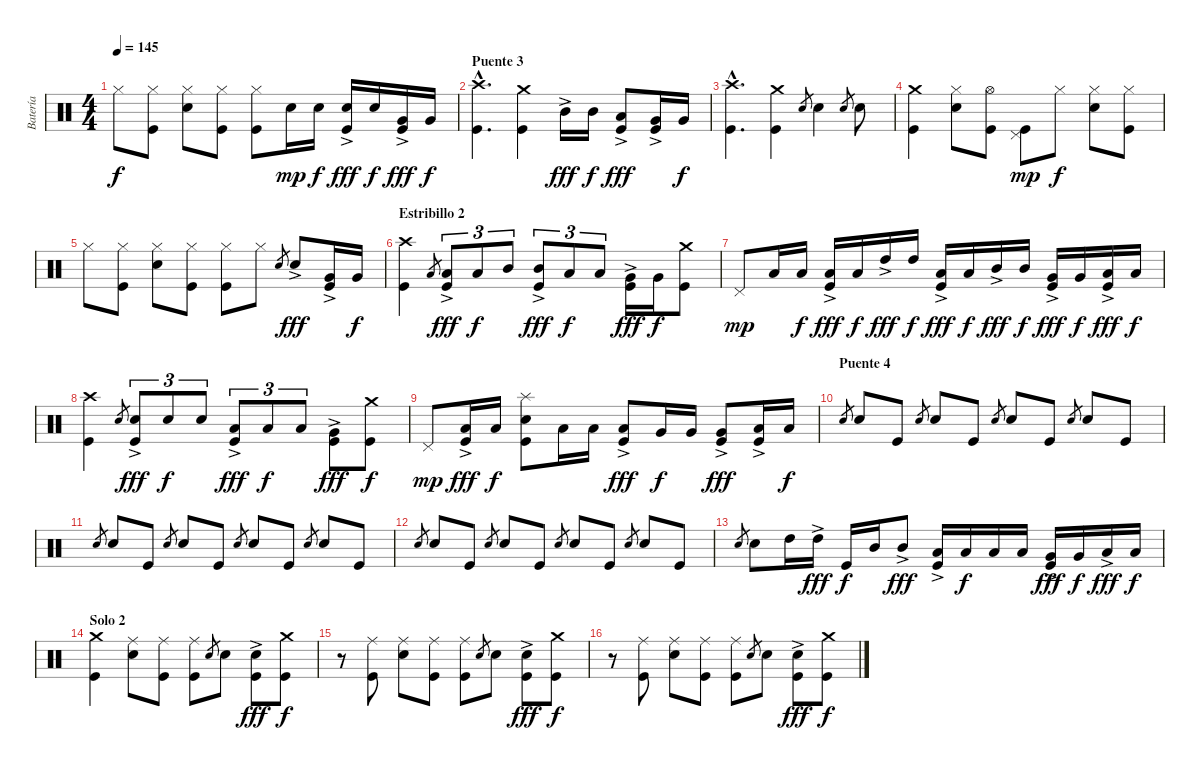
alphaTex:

\track ("Batería" "Batería") {instrument percussion}
\staff {score}
\articulation defaults
\ts (4 4)
\tempo 145
\clef neutral
\ks c "Hi-Hat (closed)".8{dy f}
("Kick (hit)" "Hi-Hat (closed)").8 ("Electric Snare (hit)" "Hi-Hat (closed)").8 ("Kick (hit)" "Hi-Hat (closed)").8 ("Kick (hit)" "Hi-Hat (closed)").8 "Electric Snare (hit)".16{dy mp} "Electric Snare (hit)".16{dy f} ("Kick (hit)" "Electric Snare (hit)"{ac}).16{dy fff} "Electric Snare (hit)".16{dy f} ("Kick (hit)" "Very Low Tom (hit)"{ac}).16{dy fff} "Very Low Tom (hit)".16{dy f} |
\section ("" "Puente 3")
("Kick (hit)"{hac} "Crash high (hit)"{hac}).4{d} ("Kick (hit)" "Crash medium (hit)").4 "Mid Tom (hit)"{ac}.16{dy fff} "Mid Tom (hit)".16{dy f} ("Kick (hit)" "Low Tom (hit)"{ac}).8{dy fff} ("Kick (hit)" "Very Low Tom (hit)"{ac}).16 "Very Low Tom (hit)".16{dy f} |
("Kick (hit)"{hac} "Crash high (hit)"{hac}).4{d} ("Kick (hit)" "Crash medium (hit)").4 "Electric Snare (hit)".8{gr} "Electric Snare (hit)".4 "Electric Snare (hit)".8{gr} "Electric Snare (hit)".8 |
("Kick (hit)" "Crash medium (hit)").4 ("Electric Snare (hit)" "Hi-Hat (closed)").8 ("Kick (hit)" "Hi-Hat (open)").8 ("Kick (hit)" "Pedal Hi-Hat (hit)").8{dy mp} "Hi-Hat (closed)".8{dy f} ("Electric Snare (hit)" "Hi-Hat (closed)").8 ("Kick (hit)" "Hi-Hat (closed)").8 |
"Hi-Hat (closed)".8 ("Kick (hit)" "Hi-Hat (closed)").8 ("Electric Snare (hit)" "Hi-Hat (closed)").8 ("Kick (hit)" "Hi-Hat (closed)").8 ("Kick (hit)" "Hi-Hat (closed)").8 "Hi-Hat (closed)".8 "Electric Snare (hit)".8{gr} "Electric Snare (hit)"{ac}.8{dy fff} ("Kick (hit)" "Very Low Tom (hit)"{ac}).16 "Very Low Tom (hit)".16{dy f} |
\section ("" "Estribillo 2")
("Kick (hit)" "Crash high (hit)").4 "Low Tom (hit)".8{gr} ("Kick (hit)" "Low Tom (hit)"{ac}).8{tu (3 2) dy fff} "Low Tom (hit)".8{tu (3 2) dy f} "Mid Tom (hit)".8{tu (3 2)} ("Kick (hit)" "Mid Tom (hit)"{ac}).8{tu (3 2) dy fff} "Low Tom (hit)".8{tu (3 2) dy f} "Low Tom (hit)".8{tu (3 2)} ("Kick (hit)" "Very Low Tom (hit)"{ac}).16{dy fff} "Very Low Tom (hit)".16{dy f} ("Kick (hit)" "Crash medium (hit)").8 |
"Pedal Hi-Hat (hit)".8{dy mp} "Low Tom (hit)".16 "Low Tom (hit)".16{dy f} ("Kick (hit)" "Low Tom (hit)"{ac}).16{dy fff} "Low Tom (hit)".16{dy f} "High Tom (hit)"{ac}.16{dy fff} "High Tom (hit)".16{dy f} ("Kick (hit)" "Low Tom (hit)"{ac}).16{dy fff} "Low Tom (hit)".16{dy f} "Mid Tom (hit)"{ac}.16{dy fff} "Mid Tom (hit)".16{dy f} ("Kick (hit)" "Very Low Tom (hit)"{ac}).16{dy fff} "Very Low Tom (hit)".16{dy f} ("Kick (hit)" "Low Floor Tom (hit)"{ac}).16{dy fff} "Low Floor Tom (hit)".16{dy f} |
("Kick (hit)" "Crash high (hit)").4 "Electric Snare (hit)".8{gr} ("Kick (hit)" "Electric Snare (hit)"{ac}).8{tu (3 2) dy fff} "Electric Snare (hit)".8{tu (3 2) dy f} "Electric Snare (hit)".8{tu (3 2)} ("Kick (hit)" "Low Tom (hit)"{ac}).8{tu (3 2) dy fff} "Low Tom (hit)".8{tu (3 2) dy f} "Low Tom (hit)".8{tu (3 2)} ("Kick (hit)" "Very Low Tom (hit)"{ac}).8{dy fff} ("Kick (hit)" "Crash medium (hit)").8{dy f} |
"Pedal Hi-Hat (hit)".8{dy mp} ("Kick (hit)" "Low Tom (hit)"{ac}).16{dy fff} "Low Tom (hit)".16{dy f} ("Kick (hit)" "Electric Snare (hit)" "Splash (hit)").8 "Low Tom (hit)".16 "Low Tom (hit)".16 ("Kick (hit)" "Low Tom (hit)"{ac}).8{dy fff} "Very Low Tom (hit)".16{dy f} "Very Low Tom (hit)".16 ("Kick (hit)" "Very Low Tom (hit)"{ac}).8{dy fff} ("Kick (hit)" "Low Floor Tom (hit)"{ac}).16 "Low Floor Tom (hit)".16{dy f} |
\section ("" "Puente 4")
"Electric Snare (hit)".8{gr} "Electric Snare (hit)".8 "Kick (hit)".8 "Electric Snare (hit)".8{gr} "Electric Snare (hit)".8 "Kick (hit)".8 "Electric Snare (hit)".8{gr} "Electric Snare (hit)".8 "Kick (hit)".8 "Electric Snare (hit)".8{gr} "Electric Snare (hit)".8 "Kick (hit)".8 |
"Electric Snare (hit)".8{gr} "Electric Snare (hit)".8 "Kick (hit)".8 "Electric Snare (hit)".8{gr} "Electric Snare (hit)".8 "Kick (hit)".8 "Electric Snare (hit)".8{gr} "Electric Snare (hit)".8 "Kick (hit)".8 "Electric Snare (hit)".8{gr} "Electric Snare (hit)".8 "Kick (hit)".8 |
"Electric Snare (hit)".8{gr} "Electric Snare (hit)".8 "Kick (hit)".8 "Electric Snare (hit)".8{gr} "Electric Snare (hit)".8 "Kick (hit)".8 "Electric Snare (hit)".8{gr} "Electric Snare (hit)".8 "Kick (hit)".8 "Electric Snare (hit)".8{gr} "Electric Snare (hit)".8 "Kick (hit)".8 |
"Electric Snare (hit)".8{gr} "Electric Snare (hit)".8 "High Tom (hit)".16 "High Tom (hit)"{ac}.16{dy fff} "Kick (hit)".16{dy f} "Mid Tom (hit)".16 "Mid Tom (hit)"{ac}.8{dy fff} ("Kick (hit)" "Low Tom (hit)"{ac}).16 "Low Tom (hit)".16{dy f} "Low Tom (hit)".16 "Low Tom (hit)".16 ("Kick (hit)" "Very Low Tom (hit)"{ac}).16{dy fff} "Very Low Tom (hit)".16{dy f} "Low Floor Tom (hit)"{ac}.16{dy fff} "Low Floor Tom (hit)".16{dy f} |
\section ("" "Solo 2")
("Kick (hit)" "Crash medium (hit)").4 ("Electric Snare (hit)" "Ride (middle)").8 ("Kick (hit)" "Ride (middle)").8 ("Kick (hit)" "Ride (middle)").8 "Electric Snare (hit)".8{gr} "Electric Snare (hit)".8 ("Kick (hit)" "Electric Snare (hit)"{ac}).8{dy fff} ("Kick (hit)" "Crash medium (hit)").8{dy f} |
r.8 ("Kick (hit)" "Ride (middle)").8 ("Electric Snare (hit)" "Ride (middle)").8 ("Kick (hit)" "Ride (middle)").8 ("Kick (hit)" "Ride (middle)").8 "Electric Snare (hit)".8{gr} "Electric Snare (hit)".8 ("Kick (hit)" "Electric Snare (hit)"{ac}).8{dy fff} ("Kick (hit)" "Crash medium (hit)").8{dy f} |
r.8 ("Kick (hit)" "Ride (middle)").8 ("Electric Snare (hit)" "Ride (middle)").8 ("Kick (hit)" "Ride (middle)").8 ("Kick (hit)" "Ride (middle)").8 "Electric Snare (hit)".8{gr} "Electric Snare (hit)".8 ("Kick (hit)" "Electric Snare (hit)"{ac}).8{dy fff} ("Kick (hit)" "Crash medium (hit)").8{dy f}
